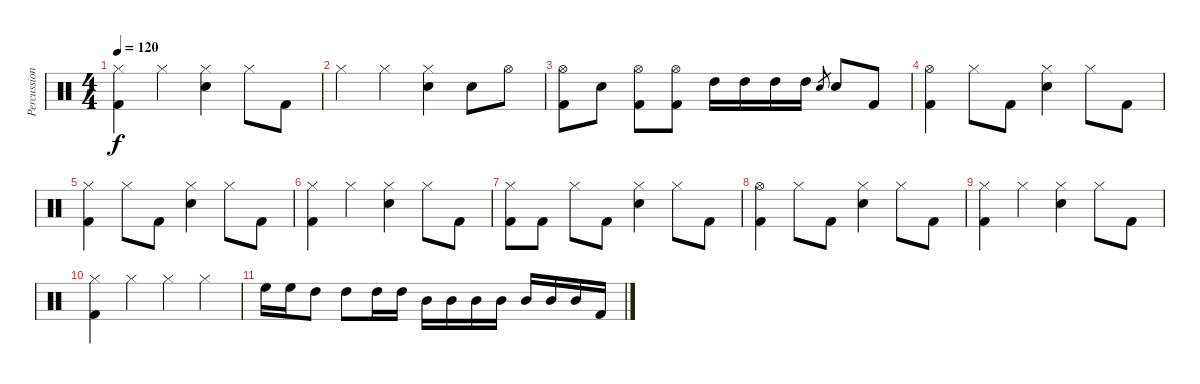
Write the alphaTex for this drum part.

\track ("Percussions" "Percussion") {instrument percussion}
\staff {score}
\articulation defaults
\ts (4 4)
\tempo 120
\clef neutral
\ks c
("Hi-Hat (closed)" "Kick (hit) 2").4{dy f} "Hi-Hat (closed)".4 ("Hi-Hat (closed)" "Snare (hit) 2").4 "Hi-Hat (closed)".8 "Kick (hit) 2".8 |
"Hi-Hat (closed)".4 "Hi-Hat (closed)".4 ("Hi-Hat (closed)" "Snare (hit) 2").4 "Snare (hit) 2".8 "Hi-Hat (open)".8 |
("Hi-Hat (open)" "Kick (hit) 2").8 "Snare (hit) 2".8 ("Hi-Hat (open)" "Kick (hit) 2").8 ("Hi-Hat (open)" "Kick (hit) 2").8 "High Tom (hit)".16 "High Tom (hit)".16 "High Tom (hit)".16 "High Tom (hit)".16 "Snare (hit) 2".8{gr} "Snare (hit) 2".8 "Kick (hit) 2".8 |
("Hi-Hat (open)" "Kick (hit) 2").4 "Hi-Hat (closed)".8 "Kick (hit) 2".8 ("Hi-Hat (closed)" "Snare (hit) 2").4 "Hi-Hat (closed)".8 "Kick (hit) 2".8 |
("Hi-Hat (closed)" "Kick (hit) 2").4 "Hi-Hat (closed)".8 "Kick (hit) 2".8 ("Hi-Hat (closed)" "Snare (hit) 2").4 "Hi-Hat (closed)".8 "Kick (hit) 2".8 |
("Hi-Hat (closed)" "Kick (hit) 2").4 "Hi-Hat (closed)".4 ("Hi-Hat (closed)" "Snare (hit) 2").4 "Hi-Hat (closed)".8 "Kick (hit) 2".8 |
("Hi-Hat (closed)" "Kick (hit) 2").8 "Kick (hit) 2".8 "Hi-Hat (closed)".8 "Kick (hit) 2".8 ("Hi-Hat (closed)" "Snare (hit) 2").4 "Hi-Hat (closed)".8 "Kick (hit) 2".8 |
("Hi-Hat (open)" "Kick (hit) 2").4 "Hi-Hat (closed)".8 "Kick (hit) 2".8 ("Hi-Hat (closed)" "Snare (hit) 2").4 "Hi-Hat (closed)".8 "Kick (hit) 2".8 |
("Hi-Hat (closed)" "Kick (hit) 2").4 "Hi-Hat (closed)".4 ("Hi-Hat (closed)" "Snare (hit) 2").4 "Hi-Hat (closed)".8 "Kick (hit) 2".8 |
("Hi-Hat (closed)" "Kick (hit) 2").4 "Hi-Hat (closed)".4 "Hi-Hat (closed)".4 "Hi-Hat (closed)".4 |
"High Floor Tom (hit)".16 "High Floor Tom (hit)".16 "High Tom (hit)".8 "High Tom (hit)".8 "High Tom (hit)".16 "High Tom (hit)".16 "Mid Tom (hit)".16 "Mid Tom (hit)".16 "Mid Tom (hit)".16 "Mid Tom (hit)".16 "Mid Tom (hit)".16 "Mid Tom (hit)".16 "Mid Tom (hit)".16 "Kick (hit) 2".16
